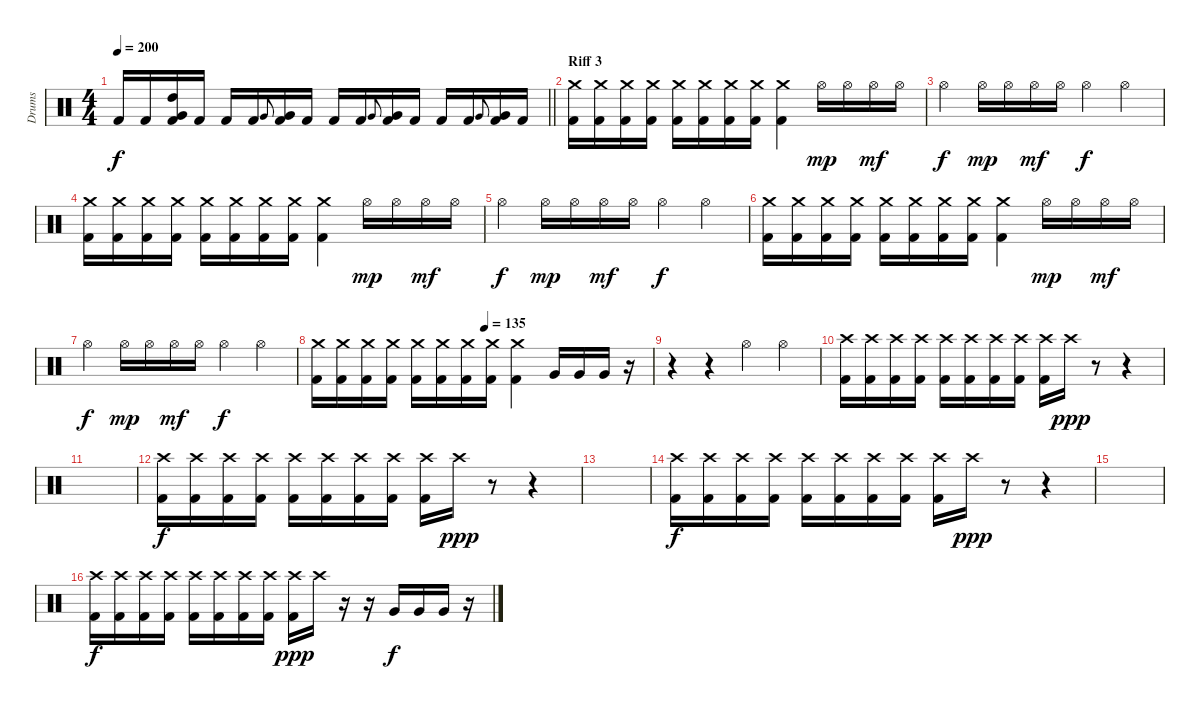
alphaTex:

\track ("Drums" "Drums") {instrument percussion}
\staff {score}
\articulation defaults
\ts (4 4)
\tempo 200
\clef neutral
\barLineRight lightlight
\ks c "Kick (hit) 2".16{dy f} "Kick (hit) 2".16
("High Tom (hit)" "Very Low Tom (hit)" "Kick (hit) 2").16 "Kick (hit) 2".16 "Kick (hit) 2".16 "Kick (hit) 2".16 "Very Low Tom (hit)".8{gr onbeat} ("Very Low Tom (hit)" "Kick (hit) 2").16 "Kick (hit) 2".16 "Kick (hit) 2".16 "Kick (hit) 2".16 "Very Low Tom (hit)".8{gr onbeat} ("Very Low Tom (hit)" "Kick (hit) 2").16 "Kick (hit) 2".16 "Kick (hit) 2".16 "Kick (hit) 2".16 "Very Low Tom (hit)".8{gr onbeat} ("Very Low Tom (hit)" "Kick (hit) 2").16 "Kick (hit) 2".16 |
\section ("" "Riff 3")
("Crash medium (hit)" "Kick (hit) 2").16 ("Crash medium (hit)" "Kick (hit) 2").16 ("Crash medium (hit)" "Kick (hit) 2").16 ("Crash medium (hit)" "Kick (hit) 2").16 ("Crash medium (hit)" "Kick (hit) 2").16 ("Crash medium (hit)" "Kick (hit) 2").16 ("Crash medium (hit)" "Kick (hit) 2").16 ("Crash medium (hit)" "Kick (hit) 2").16 ("Crash medium (hit)" "Kick (hit) 2").4 "Hi-Hat (open)".16{dy mp} "Hi-Hat (open)".16 "Hi-Hat (open)".16{dy mf} "Hi-Hat (open)".16 |
"Hi-Hat (open)".4{dy f} "Hi-Hat (open)".16{dy mp} "Hi-Hat (open)".16 "Hi-Hat (open)".16{dy mf} "Hi-Hat (open)".16 "Hi-Hat (open)".4{dy f} "Hi-Hat (open)".4 |
("Crash medium (hit)" "Kick (hit) 2").16 ("Crash medium (hit)" "Kick (hit) 2").16 ("Crash medium (hit)" "Kick (hit) 2").16 ("Crash medium (hit)" "Kick (hit) 2").16 ("Crash medium (hit)" "Kick (hit) 2").16 ("Crash medium (hit)" "Kick (hit) 2").16 ("Crash medium (hit)" "Kick (hit) 2").16 ("Crash medium (hit)" "Kick (hit) 2").16 ("Crash medium (hit)" "Kick (hit) 2").4 "Hi-Hat (open)".16{dy mp} "Hi-Hat (open)".16 "Hi-Hat (open)".16{dy mf} "Hi-Hat (open)".16 |
"Hi-Hat (open)".4{dy f} "Hi-Hat (open)".16{dy mp} "Hi-Hat (open)".16 "Hi-Hat (open)".16{dy mf} "Hi-Hat (open)".16 "Hi-Hat (open)".4{dy f} "Hi-Hat (open)".4 |
("Crash medium (hit)" "Kick (hit) 2").16 ("Crash medium (hit)" "Kick (hit) 2").16 ("Crash medium (hit)" "Kick (hit) 2").16 ("Crash medium (hit)" "Kick (hit) 2").16 ("Crash medium (hit)" "Kick (hit) 2").16 ("Crash medium (hit)" "Kick (hit) 2").16 ("Crash medium (hit)" "Kick (hit) 2").16 ("Crash medium (hit)" "Kick (hit) 2").16 ("Crash medium (hit)" "Kick (hit) 2").4 "Hi-Hat (open)".16{dy mp} "Hi-Hat (open)".16 "Hi-Hat (open)".16{dy mf} "Hi-Hat (open)".16 |
"Hi-Hat (open)".4{dy f} "Hi-Hat (open)".16{dy mp} "Hi-Hat (open)".16 "Hi-Hat (open)".16{dy mf} "Hi-Hat (open)".16 "Hi-Hat (open)".4{dy f} "Hi-Hat (open)".4 |
\tempo (135 0.5)
("Crash medium (hit)" "Kick (hit) 2").16 ("Crash medium (hit)" "Kick (hit) 2").16 ("Crash medium (hit)" "Kick (hit) 2").16 ("Crash medium (hit)" "Kick (hit) 2").16 ("Crash medium (hit)" "Kick (hit) 2").16 ("Crash medium (hit)" "Kick (hit) 2").16 ("Crash medium (hit)" "Kick (hit) 2").16 ("Crash medium (hit)" "Kick (hit) 2").16 ("Crash medium (hit)" "Kick (hit) 2").4 "Very Low Tom (hit)".16 "Very Low Tom (hit)".16 "Very Low Tom (hit)".16 r.16 |
r.4 r.4 "Hi-Hat (open)".4 "Hi-Hat (open)".4 |
("Crash high (hit)" "Kick (hit) 2").16 ("Crash high (hit)" "Kick (hit) 2").16 ("Crash high (hit)" "Kick (hit) 2").16 ("Crash high (hit)" "Kick (hit) 2").16 ("Crash high (hit)" "Kick (hit) 2").16 ("Crash high (hit)" "Kick (hit) 2").16 ("Crash high (hit)" "Kick (hit) 2").16 ("Crash high (hit)" "Kick (hit) 2").16 ("Crash high (hit)" "Kick (hit) 2").16 "Crash high (hit)".16{dy ppp} r.8 r.4 |
|
("Crash high (hit)" "Kick (hit) 2").16{dy f} ("Crash high (hit)" "Kick (hit) 2").16 ("Crash high (hit)" "Kick (hit) 2").16 ("Crash high (hit)" "Kick (hit) 2").16 ("Crash high (hit)" "Kick (hit) 2").16 ("Crash high (hit)" "Kick (hit) 2").16 ("Crash high (hit)" "Kick (hit) 2").16 ("Crash high (hit)" "Kick (hit) 2").16 ("Crash high (hit)" "Kick (hit) 2").16 "Crash high (hit)".16{dy ppp} r.8 r.4 |
|
("Crash high (hit)" "Kick (hit) 2").16{dy f} ("Crash high (hit)" "Kick (hit) 2").16 ("Crash high (hit)" "Kick (hit) 2").16 ("Crash high (hit)" "Kick (hit) 2").16 ("Crash high (hit)" "Kick (hit) 2").16 ("Crash high (hit)" "Kick (hit) 2").16 ("Crash high (hit)" "Kick (hit) 2").16 ("Crash high (hit)" "Kick (hit) 2").16 ("Crash high (hit)" "Kick (hit) 2").16 "Crash high (hit)".16{dy ppp} r.8 r.4 |
|
("Crash high (hit)" "Kick (hit) 2").16{dy f} ("Crash high (hit)" "Kick (hit) 2").16 ("Crash high (hit)" "Kick (hit) 2").16 ("Crash high (hit)" "Kick (hit) 2").16 ("Crash high (hit)" "Kick (hit) 2").16 ("Crash high (hit)" "Kick (hit) 2").16 ("Crash high (hit)" "Kick (hit) 2").16 ("Crash high (hit)" "Kick (hit) 2").16 ("Crash high (hit)" "Kick (hit) 2").16{dy ppp} "Crash high (hit)".16 r.16 r.16 "Very Low Tom (hit)".16{dy f} "Very Low Tom (hit)".16 "Very Low Tom (hit)".16 r.16
